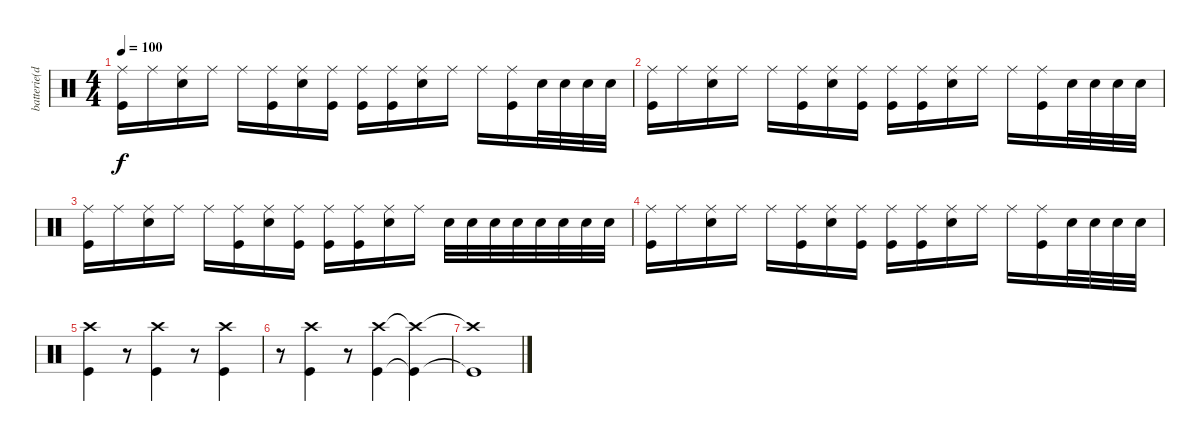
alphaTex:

\track ("batterie(dave)" "batterie(d") {instrument percussion}
\staff {score}
\articulation defaults
\ts (4 4)
\tempo 100
\clef neutral
\ks c
("Ride (middle)" "Kick (hit)").16{dy f} "Ride (middle)".16 ("Ride (middle)" "Snare (hit) 2").16 "Ride (middle)".16 "Ride (middle)".16 ("Ride (middle)" "Kick (hit)").16 ("Ride (middle)" "Snare (hit) 2").16 ("Ride (middle)" "Kick (hit)").16 ("Ride (middle)" "Kick (hit)").16 ("Ride (middle)" "Kick (hit)").16 ("Ride (middle)" "Snare (hit) 2").16 "Ride (middle)".16 "Ride (middle)".16 ("Ride (middle)" "Kick (hit)").16 "Snare (hit) 2".32 "Snare (hit) 2".32 "Snare (hit) 2".32 "Snare (hit) 2".32 |
("Ride (middle)" "Kick (hit)").16 "Ride (middle)".16 ("Ride (middle)" "Snare (hit) 2").16 "Ride (middle)".16 "Ride (middle)".16 ("Ride (middle)" "Kick (hit)").16 ("Ride (middle)" "Snare (hit) 2").16 ("Ride (middle)" "Kick (hit)").16 ("Ride (middle)" "Kick (hit)").16 ("Ride (middle)" "Kick (hit)").16 ("Ride (middle)" "Snare (hit) 2").16 "Ride (middle)".16 "Ride (middle)".16 ("Ride (middle)" "Kick (hit)").16 "Snare (hit) 2".32 "Snare (hit) 2".32 "Snare (hit) 2".32 "Snare (hit) 2".32 |
("Ride (middle)" "Kick (hit)").16 "Ride (middle)".16 ("Ride (middle)" "Snare (hit) 2").16 "Ride (middle)".16 "Ride (middle)".16 ("Ride (middle)" "Kick (hit)").16 ("Ride (middle)" "Snare (hit) 2").16 ("Ride (middle)" "Kick (hit)").16 ("Ride (middle)" "Kick (hit)").16 ("Ride (middle)" "Kick (hit)").16 ("Ride (middle)" "Snare (hit) 2").16 "Ride (middle)".16 "Snare (hit) 2".32 "Snare (hit) 2".32 "Snare (hit) 2".32 "Snare (hit) 2".32 "Snare (hit) 2".32 "Snare (hit) 2".32 "Snare (hit) 2".32 "Snare (hit) 2".32 |
("Ride (middle)" "Kick (hit)").16 "Ride (middle)".16 ("Ride (middle)" "Snare (hit) 2").16 "Ride (middle)".16 "Ride (middle)".16 ("Ride (middle)" "Kick (hit)").16 ("Ride (middle)" "Snare (hit) 2").16 ("Ride (middle)" "Kick (hit)").16 ("Ride (middle)" "Kick (hit)").16 ("Ride (middle)" "Kick (hit)").16 ("Ride (middle)" "Snare (hit) 2").16 "Ride (middle)".16 "Ride (middle)".16 ("Ride (middle)" "Kick (hit)").16 "Snare (hit) 2".32 "Snare (hit) 2".32 "Snare (hit) 2".32 "Snare (hit) 2".32 |
("Crash high (hit)" "Kick (hit)").4 r.8 ("Crash high (hit)" "Kick (hit)").4 r.8 ("Crash high (hit)" "Kick (hit)").4 |
r.8 ("Crash high (hit)" "Kick (hit)").4 r.8 ("Crash high (hit)" "Kick (hit)").4 ("Crash high (hit)"{t} "Kick (hit)"{t}).4 |
("Crash high (hit)"{t} "Kick (hit)"{t}).1
